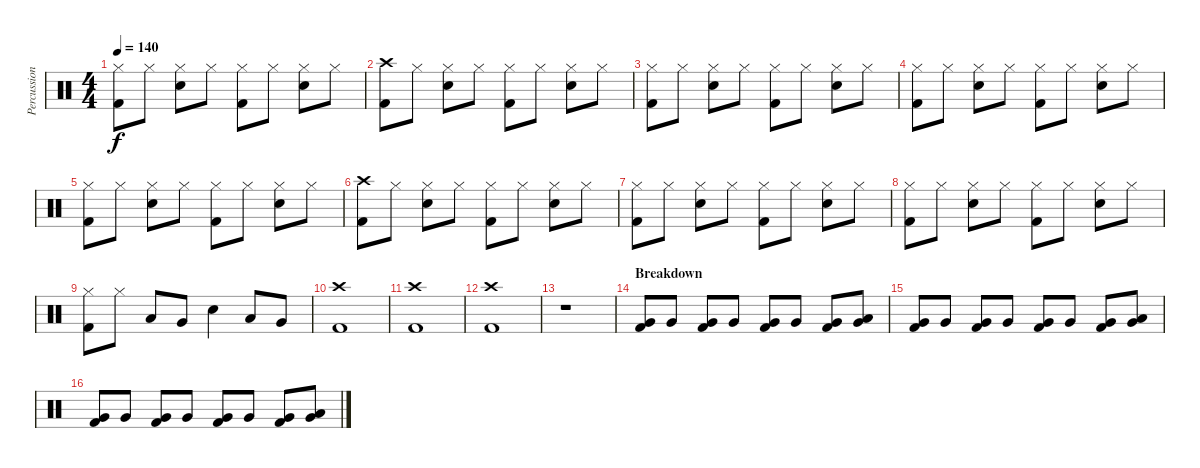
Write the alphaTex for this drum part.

\track ("Percussion" "Percussion") {instrument percussion}
\staff {score}
\articulation defaults
\ts (4 4)
\tempo 140
\clef neutral
\ks c
("Hi-Hat (closed)" "Kick (hit) 2").8{dy f} "Hi-Hat (closed)".8 ("Hi-Hat (closed)" "Snare (hit) 2").8 "Hi-Hat (closed)".8 ("Hi-Hat (closed)" "Kick (hit) 2").8 "Hi-Hat (closed)".8 ("Hi-Hat (closed)" "Snare (hit) 2").8 "Hi-Hat (closed)".8 |
("Crash high (hit)" "Kick (hit) 2").8 "Hi-Hat (closed)".8 ("Hi-Hat (closed)" "Snare (hit) 2").8 "Hi-Hat (closed)".8 ("Hi-Hat (closed)" "Kick (hit) 2").8 "Hi-Hat (closed)".8 ("Hi-Hat (closed)" "Snare (hit) 2").8 "Hi-Hat (closed)".8 |
("Hi-Hat (closed)" "Kick (hit) 2").8 "Hi-Hat (closed)".8 ("Hi-Hat (closed)" "Snare (hit) 2").8 "Hi-Hat (closed)".8 ("Hi-Hat (closed)" "Kick (hit) 2").8 "Hi-Hat (closed)".8 ("Hi-Hat (closed)" "Snare (hit) 2").8 "Hi-Hat (closed)".8 |
("Hi-Hat (closed)" "Kick (hit) 2").8 "Hi-Hat (closed)".8 ("Hi-Hat (closed)" "Snare (hit) 2").8 "Hi-Hat (closed)".8 ("Hi-Hat (closed)" "Kick (hit) 2").8 "Hi-Hat (closed)".8 ("Hi-Hat (closed)" "Snare (hit) 2").8 "Hi-Hat (closed)".8 |
("Hi-Hat (closed)" "Kick (hit) 2").8 "Hi-Hat (closed)".8 ("Hi-Hat (closed)" "Snare (hit) 2").8 "Hi-Hat (closed)".8 ("Hi-Hat (closed)" "Kick (hit) 2").8 "Hi-Hat (closed)".8 ("Hi-Hat (closed)" "Snare (hit) 2").8 "Hi-Hat (closed)".8 |
("Crash high (hit)" "Kick (hit) 2").8 "Hi-Hat (closed)".8 ("Hi-Hat (closed)" "Snare (hit) 2").8 "Hi-Hat (closed)".8 ("Hi-Hat (closed)" "Kick (hit) 2").8 "Hi-Hat (closed)".8 ("Hi-Hat (closed)" "Snare (hit) 2").8 "Hi-Hat (closed)".8 |
("Hi-Hat (closed)" "Kick (hit) 2").8 "Hi-Hat (closed)".8 ("Hi-Hat (closed)" "Snare (hit) 2").8 "Hi-Hat (closed)".8 ("Hi-Hat (closed)" "Kick (hit) 2").8 "Hi-Hat (closed)".8 ("Hi-Hat (closed)" "Snare (hit) 2").8 "Hi-Hat (closed)".8 |
("Hi-Hat (closed)" "Kick (hit) 2").8 "Hi-Hat (closed)".8 ("Hi-Hat (closed)" "Snare (hit) 2").8 "Hi-Hat (closed)".8 ("Hi-Hat (closed)" "Kick (hit) 2").8 "Hi-Hat (closed)".8 ("Hi-Hat (closed)" "Snare (hit) 2").8 "Hi-Hat (closed)".8 |
("Hi-Hat (closed)" "Kick (hit) 2").8 "Hi-Hat (closed)".8 "Low Tom (hit)".8 "Very Low Tom (hit)".8 "Snare (hit) 2".4 "Low Tom (hit)".8 "Very Low Tom (hit)".8 |
("Crash high (hit)" "Kick (hit) 2").1 |
("Crash high (hit)" "Kick (hit) 2").1 |
("Crash high (hit)" "Kick (hit) 2").1 |
r.1 |
\section ("" "Breakdown")
("Very Low Tom (hit)" "Kick (hit) 2").8 "Very Low Tom (hit)".8 ("Very Low Tom (hit)" "Kick (hit) 2").8 "Very Low Tom (hit)".8 ("Very Low Tom (hit)" "Kick (hit) 2").8 "Very Low Tom (hit)".8 ("Very Low Tom (hit)" "Kick (hit) 2").8 ("Low Tom (hit)" "Very Low Tom (hit)").8 |
("Very Low Tom (hit)" "Kick (hit) 2").8 "Very Low Tom (hit)".8 ("Very Low Tom (hit)" "Kick (hit) 2").8 "Very Low Tom (hit)".8 ("Very Low Tom (hit)" "Kick (hit) 2").8 "Very Low Tom (hit)".8 ("Very Low Tom (hit)" "Kick (hit) 2").8 ("Low Tom (hit)" "Very Low Tom (hit)").8 |
("Very Low Tom (hit)" "Kick (hit) 2").8 "Very Low Tom (hit)".8 ("Very Low Tom (hit)" "Kick (hit) 2").8 "Very Low Tom (hit)".8 ("Very Low Tom (hit)" "Kick (hit) 2").8 "Very Low Tom (hit)".8 ("Very Low Tom (hit)" "Kick (hit) 2").8 ("Low Tom (hit)" "Very Low Tom (hit)").8
